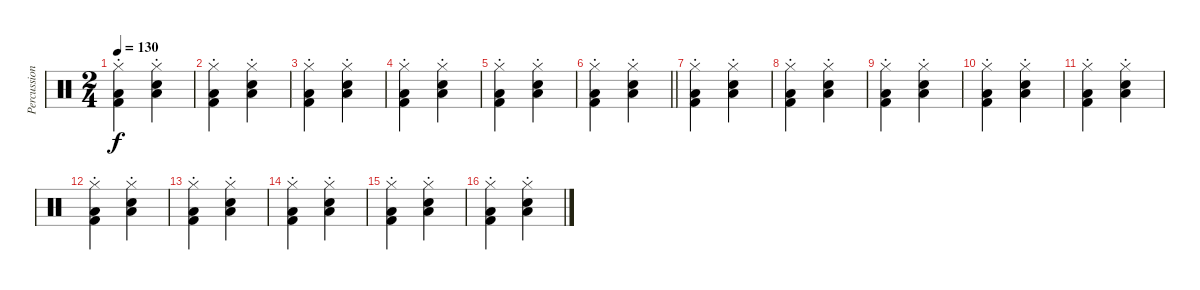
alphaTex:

\track ("Percussion" "Percussion") {instrument percussion}
\staff {score}
\articulation defaults
\ts (2 4)
\tempo 130
\clef neutral
\ks c
("Hi-Hat (closed)"{st} "Kick (hit) 2"{st} "Low Floor Tom (hit)"{st}).4{dy f} ("Hi-Hat (closed)" "Snare (hit) 2"{st} "Low Floor Tom (hit)"{st}).4 |
("Hi-Hat (closed)"{st} "Kick (hit) 2"{st} "Low Floor Tom (hit)"{st}).4 ("Hi-Hat (closed)" "Snare (hit) 2"{st} "Low Floor Tom (hit)"{st}).4 |
("Hi-Hat (closed)"{st} "Kick (hit) 2"{st} "Low Floor Tom (hit)"{st}).4 ("Hi-Hat (closed)" "Snare (hit) 2"{st} "Low Floor Tom (hit)"{st}).4 |
("Hi-Hat (closed)"{st} "Kick (hit) 2"{st} "Low Floor Tom (hit)"{st}).4 ("Hi-Hat (closed)" "Snare (hit) 2"{st} "Low Floor Tom (hit)"{st}).4 |
("Hi-Hat (closed)"{st} "Kick (hit) 2"{st} "Low Floor Tom (hit)"{st}).4 ("Hi-Hat (closed)" "Snare (hit) 2"{st} "Low Floor Tom (hit)"{st}).4 |
\barLineRight lightlight
("Hi-Hat (closed)"{st} "Kick (hit) 2"{st} "Low Floor Tom (hit)"{st}).4 ("Hi-Hat (closed)" "Snare (hit) 2"{st} "Low Floor Tom (hit)"{st}).4 |
("Hi-Hat (closed)"{st} "Kick (hit) 2"{st} "Low Floor Tom (hit)"{st}).4 ("Hi-Hat (closed)" "Snare (hit) 2"{st} "Low Floor Tom (hit)"{st}).4 |
("Hi-Hat (closed)"{st} "Kick (hit) 2"{st} "Low Floor Tom (hit)"{st}).4 ("Hi-Hat (closed)" "Snare (hit) 2"{st} "Low Floor Tom (hit)"{st}).4 |
("Hi-Hat (closed)"{st} "Kick (hit) 2"{st} "Low Floor Tom (hit)"{st}).4 ("Hi-Hat (closed)" "Snare (hit) 2"{st} "Low Floor Tom (hit)"{st}).4 |
("Hi-Hat (closed)"{st} "Kick (hit) 2"{st} "Low Floor Tom (hit)"{st}).4 ("Hi-Hat (closed)" "Snare (hit) 2"{st} "Low Floor Tom (hit)"{st}).4 |
("Hi-Hat (closed)"{st} "Kick (hit) 2"{st} "Low Floor Tom (hit)"{st}).4 ("Hi-Hat (closed)" "Snare (hit) 2"{st} "Low Floor Tom (hit)"{st}).4 |
("Hi-Hat (closed)"{st} "Kick (hit) 2"{st} "Low Floor Tom (hit)"{st}).4 ("Hi-Hat (closed)" "Snare (hit) 2"{st} "Low Floor Tom (hit)"{st}).4 |
("Hi-Hat (closed)"{st} "Kick (hit) 2"{st} "Low Floor Tom (hit)"{st}).4 ("Hi-Hat (closed)" "Snare (hit) 2"{st} "Low Floor Tom (hit)"{st}).4 |
("Hi-Hat (closed)"{st} "Kick (hit) 2"{st} "Low Floor Tom (hit)"{st}).4 ("Hi-Hat (closed)" "Snare (hit) 2"{st} "Low Floor Tom (hit)"{st}).4 |
("Hi-Hat (closed)"{st} "Kick (hit) 2"{st} "Low Floor Tom (hit)"{st}).4 ("Hi-Hat (closed)" "Snare (hit) 2"{st} "Low Floor Tom (hit)"{st}).4 |
("Hi-Hat (closed)"{st} "Kick (hit) 2"{st} "Low Floor Tom (hit)"{st}).4 ("Hi-Hat (closed)" "Snare (hit) 2"{st} "Low Floor Tom (hit)"{st}).4
